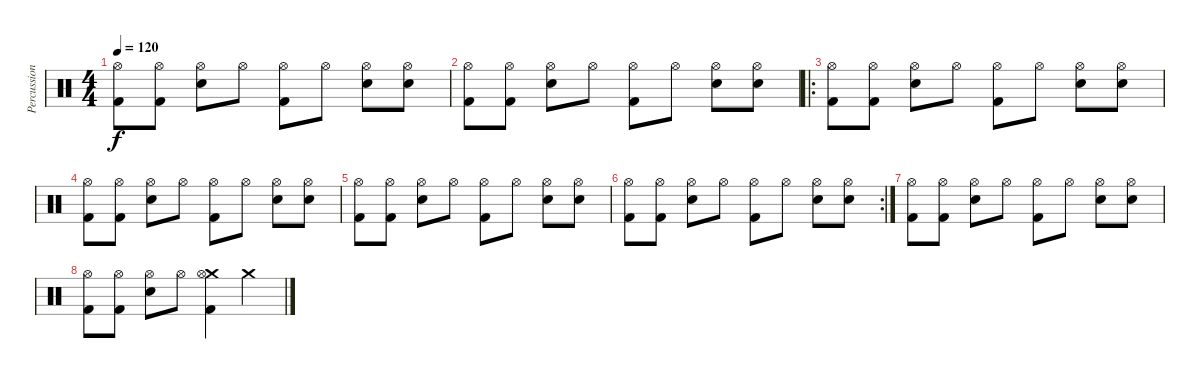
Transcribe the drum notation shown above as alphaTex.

\track ("Percussion" "Percussion") {instrument percussion}
\staff {score}
\articulation defaults
\ts (4 4)
\tempo 120
\clef neutral
\ks c
("Kick (hit) 2" "Hi-Hat (open)").8{dy f} ("Kick (hit) 2" "Hi-Hat (open)").8 ("Snare (hit) 2" "Hi-Hat (open)").8 "Hi-Hat (open)".8 ("Kick (hit) 2" "Hi-Hat (open)").8 "Hi-Hat (open)".8 ("Snare (hit) 2" "Hi-Hat (open)").8 ("Snare (hit) 2" "Hi-Hat (open)").8 |
("Kick (hit) 2" "Hi-Hat (open)").8 ("Kick (hit) 2" "Hi-Hat (open)").8 ("Snare (hit) 2" "Hi-Hat (open)").8 "Hi-Hat (open)".8 ("Kick (hit) 2" "Hi-Hat (open)").8 "Hi-Hat (open)".8 ("Snare (hit) 2" "Hi-Hat (open)").8 ("Snare (hit) 2" "Hi-Hat (open)").8 |
\ro
("Kick (hit) 2" "Hi-Hat (open)").8 ("Kick (hit) 2" "Hi-Hat (open)").8 ("Snare (hit) 2" "Hi-Hat (open)").8 "Hi-Hat (open)".8 ("Kick (hit) 2" "Hi-Hat (open)").8 "Hi-Hat (open)".8 ("Snare (hit) 2" "Hi-Hat (open)").8 ("Snare (hit) 2" "Hi-Hat (open)").8 |
("Kick (hit) 2" "Hi-Hat (open)").8 ("Kick (hit) 2" "Hi-Hat (open)").8 ("Snare (hit) 2" "Hi-Hat (open)").8 "Hi-Hat (open)".8 ("Kick (hit) 2" "Hi-Hat (open)").8 "Hi-Hat (open)".8 ("Snare (hit) 2" "Hi-Hat (open)").8 ("Snare (hit) 2" "Hi-Hat (open)").8 |
("Kick (hit) 2" "Hi-Hat (open)").8 ("Kick (hit) 2" "Hi-Hat (open)").8 ("Snare (hit) 2" "Hi-Hat (open)").8 "Hi-Hat (open)".8 ("Kick (hit) 2" "Hi-Hat (open)").8 "Hi-Hat (open)".8 ("Snare (hit) 2" "Hi-Hat (open)").8 ("Snare (hit) 2" "Hi-Hat (open)").8 |
\rc 2
("Kick (hit) 2" "Hi-Hat (open)").8 ("Kick (hit) 2" "Hi-Hat (open)").8 ("Snare (hit) 2" "Hi-Hat (open)").8 "Hi-Hat (open)".8 ("Kick (hit) 2" "Hi-Hat (open)").8 "Hi-Hat (open)".8 ("Snare (hit) 2" "Hi-Hat (open)").8 ("Snare (hit) 2" "Hi-Hat (open)").8 |
("Kick (hit) 2" "Hi-Hat (open)").8 ("Kick (hit) 2" "Hi-Hat (open)").8 ("Snare (hit) 2" "Hi-Hat (open)").8 "Hi-Hat (open)".8 ("Kick (hit) 2" "Hi-Hat (open)").8 "Hi-Hat (open)".8 ("Snare (hit) 2" "Hi-Hat (open)").8 ("Snare (hit) 2" "Hi-Hat (open)").8 |
("Kick (hit) 2" "Hi-Hat (open)").8 ("Kick (hit) 2" "Hi-Hat (open)").8 ("Snare (hit) 2" "Hi-Hat (open)").8 "Hi-Hat (open)".8 ("Kick (hit) 2" "Crash medium (hit)" "Hi-Hat (open)").4 "Crash medium (hit)".4
